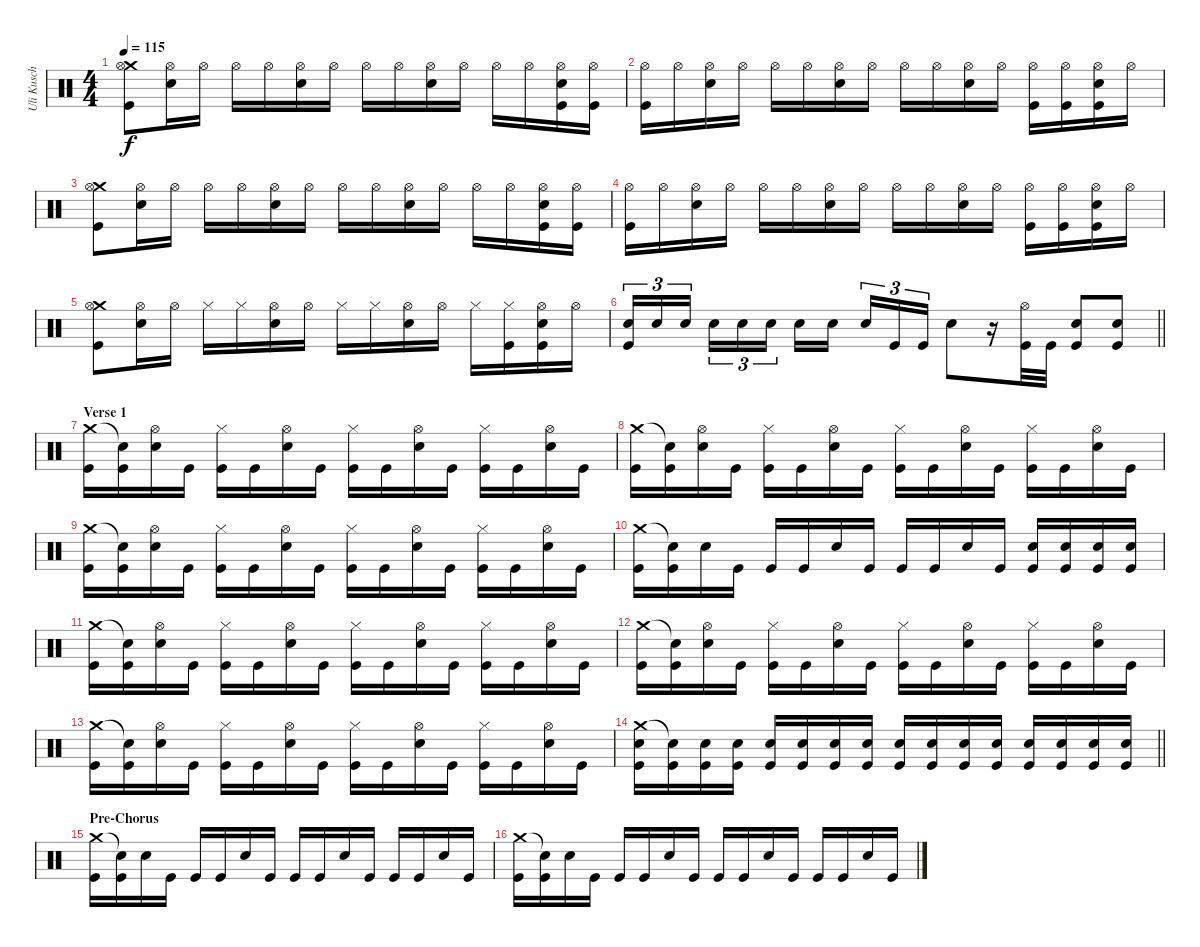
\track ("Uli Kusch (Drums)" "Uli Kusch ") {instrument percussion}
\staff {score}
\articulation defaults
\ts (4 4)
\tempo 115
\clef neutral
\ks c
("Crash medium (hit)" "Hi-Hat (open)" "Kick (hit)").8{dy f} ("Hi-Hat (open)" "Snare (hit) 2").16 "Hi-Hat (open)".16 "Hi-Hat (open)".16 "Hi-Hat (open)".16 ("Hi-Hat (open)" "Snare (hit) 2").16 "Hi-Hat (open)".16 "Hi-Hat (open)".16 "Hi-Hat (open)".16 ("Hi-Hat (open)" "Snare (hit) 2").16 "Hi-Hat (open)".16 "Hi-Hat (open)".16 "Hi-Hat (open)".16 ("Hi-Hat (open)" "Snare (hit) 2" "Kick (hit)").16 ("Hi-Hat (open)" "Kick (hit)").16 |
("Hi-Hat (open)" "Kick (hit)").16 "Hi-Hat (open)".16 ("Hi-Hat (open)" "Snare (hit) 2").16 "Hi-Hat (open)".16 "Hi-Hat (open)".16 "Hi-Hat (open)".16 ("Hi-Hat (open)" "Snare (hit) 2").16 "Hi-Hat (open)".16 "Hi-Hat (open)".16 "Hi-Hat (open)".16 ("Hi-Hat (open)" "Snare (hit) 2").16 "Hi-Hat (open)".16 ("Hi-Hat (open)" "Kick (hit)").16 ("Hi-Hat (open)" "Kick (hit)").16 ("Hi-Hat (open)" "Snare (hit) 2" "Kick (hit)").16 "Hi-Hat (open)".16 |
("Crash medium (hit)" "Hi-Hat (open)" "Kick (hit)").8 ("Hi-Hat (open)" "Snare (hit) 2").16 "Hi-Hat (open)".16 "Hi-Hat (open)".16 "Hi-Hat (open)".16 ("Hi-Hat (open)" "Snare (hit) 2").16 "Hi-Hat (open)".16 "Hi-Hat (open)".16 "Hi-Hat (open)".16 ("Hi-Hat (open)" "Snare (hit) 2").16 "Hi-Hat (open)".16 "Hi-Hat (open)".16 "Hi-Hat (open)".16 ("Hi-Hat (open)" "Snare (hit) 2" "Kick (hit)").16 ("Hi-Hat (open)" "Kick (hit)").16 |
("Hi-Hat (open)" "Kick (hit)").16 "Hi-Hat (open)".16 ("Hi-Hat (open)" "Snare (hit) 2").16 "Hi-Hat (open)".16 "Hi-Hat (open)".16 "Hi-Hat (open)".16 ("Hi-Hat (open)" "Snare (hit) 2").16 "Hi-Hat (open)".16 "Hi-Hat (open)".16 "Hi-Hat (open)".16 ("Hi-Hat (open)" "Snare (hit) 2").16 "Hi-Hat (open)".16 ("Hi-Hat (open)" "Kick (hit)").16 ("Hi-Hat (open)" "Kick (hit)").16 ("Hi-Hat (open)" "Snare (hit) 2" "Kick (hit)").16 "Hi-Hat (open)".16 |
("Crash medium (hit)" "Hi-Hat (open)" "Kick (hit)").8 ("Hi-Hat (open)" "Snare (hit) 2").16 "Hi-Hat (open)".16 "Hi-Hat (closed)".16 "Hi-Hat (closed)".16 ("Hi-Hat (open)" "Snare (hit) 2").16 "Hi-Hat (open)".16 "Hi-Hat (closed)".16 "Hi-Hat (closed)".16 ("Hi-Hat (open)" "Snare (hit) 2").16 "Hi-Hat (open)".16 "Hi-Hat (closed)".16 ("Hi-Hat (closed)" "Kick (hit)").16 ("Hi-Hat (open)" "Snare (hit) 2" "Kick (hit)").16 "Hi-Hat (open)".16 |
\barLineRight lightlight
("Snare (hit) 2" "Kick (hit)").16{tu (3 2)} "Snare (hit) 2".16{tu (3 2)} "Snare (hit) 2".16{tu (3 2) beam splitsecondary} "Snare (hit) 2".16{tu (3 2)} "Snare (hit) 2".16{tu (3 2)} "Snare (hit) 2".16{tu (3 2)} "Snare (hit) 2".16 "Snare (hit) 2".16{beam splitsecondary} "Snare (hit) 2".16{tu (3 2)} "Kick (hit)".16{tu (3 2)} "Kick (hit)".16{tu (3 2)} "Snare (hit) 2".8 r.16 ("Hi-Hat (open)" "Kick (hit)").32 "Kick (hit)".32 ("Snare (hit) 2" "Kick (hit)").8 ("Snare (hit) 2" "Kick (hit)").8 |
\section ("" "Verse 1")
("Crash medium (hit)" "Kick (hit)").16 ("Snare (hit)"{t} "Kick (hit)").16 ("Hi-Hat (open)" "Snare (hit) 2").16 "Kick (hit)".16 ("Hi-Hat (closed)" "Kick (hit)").16 "Kick (hit)".16 ("Hi-Hat (open)" "Snare (hit) 2").16 "Kick (hit)".16 ("Hi-Hat (closed)" "Kick (hit)").16 "Kick (hit)".16 ("Hi-Hat (open)" "Snare (hit) 2").16 "Kick (hit)".16 ("Hi-Hat (closed)" "Kick (hit)").16 "Kick (hit)".16 ("Hi-Hat (open)" "Snare (hit) 2").16 "Kick (hit)".16 |
("Crash medium (hit)" "Kick (hit)").16 ("Snare (hit)"{t} "Kick (hit)").16 ("Hi-Hat (open)" "Snare (hit) 2").16 "Kick (hit)".16 ("Hi-Hat (closed)" "Kick (hit)").16 "Kick (hit)".16 ("Hi-Hat (open)" "Snare (hit) 2").16 "Kick (hit)".16 ("Hi-Hat (closed)" "Kick (hit)").16 "Kick (hit)".16 ("Hi-Hat (open)" "Snare (hit) 2").16 "Kick (hit)".16 ("Hi-Hat (closed)" "Kick (hit)").16 "Kick (hit)".16 ("Hi-Hat (open)" "Snare (hit) 2").16 "Kick (hit)".16 |
("Crash medium (hit)" "Kick (hit)").16 ("Snare (hit)"{t} "Kick (hit)").16 ("Hi-Hat (open)" "Snare (hit) 2").16 "Kick (hit)".16 ("Hi-Hat (closed)" "Kick (hit)").16 "Kick (hit)".16 ("Hi-Hat (open)" "Snare (hit) 2").16 "Kick (hit)".16 ("Hi-Hat (closed)" "Kick (hit)").16 "Kick (hit)".16 ("Hi-Hat (open)" "Snare (hit) 2").16 "Kick (hit)".16 ("Hi-Hat (closed)" "Kick (hit)").16 "Kick (hit)".16 ("Hi-Hat (open)" "Snare (hit) 2").16 "Kick (hit)".16 |
("Crash medium (hit)" "Kick (hit)").16 ("Snare (hit)"{t} "Kick (hit)").16 "Snare (hit) 2".16 "Kick (hit)".16 "Kick (hit)".16 "Kick (hit)".16 "Snare (hit) 2".16 "Kick (hit)".16 "Kick (hit)".16 "Kick (hit)".16 "Snare (hit) 2".16 "Kick (hit)".16 ("Electric Snare (hit)" "Kick (hit)").16 ("Electric Snare (hit)" "Kick (hit)").16 ("Snare (hit) 2" "Kick (hit)").16 ("Snare (hit) 2" "Kick (hit)").16 |
("Crash medium (hit)" "Kick (hit)").16 ("Snare (hit)"{t} "Kick (hit)").16 ("Hi-Hat (open)" "Snare (hit) 2").16 "Kick (hit)".16 ("Hi-Hat (closed)" "Kick (hit)").16 "Kick (hit)".16 ("Hi-Hat (open)" "Snare (hit) 2").16 "Kick (hit)".16 ("Hi-Hat (closed)" "Kick (hit)").16 "Kick (hit)".16 ("Hi-Hat (open)" "Snare (hit) 2").16 "Kick (hit)".16 ("Hi-Hat (closed)" "Kick (hit)").16 "Kick (hit)".16 ("Hi-Hat (open)" "Snare (hit) 2").16 "Kick (hit)".16 |
("Crash medium (hit)" "Kick (hit)").16 ("Snare (hit)"{t} "Kick (hit)").16 ("Hi-Hat (open)" "Snare (hit) 2").16 "Kick (hit)".16 ("Hi-Hat (closed)" "Kick (hit)").16 "Kick (hit)".16 ("Hi-Hat (open)" "Snare (hit) 2").16 "Kick (hit)".16 ("Hi-Hat (closed)" "Kick (hit)").16 "Kick (hit)".16 ("Hi-Hat (open)" "Snare (hit) 2").16 "Kick (hit)".16 ("Hi-Hat (closed)" "Kick (hit)").16 "Kick (hit)".16 ("Hi-Hat (open)" "Snare (hit) 2").16 "Kick (hit)".16 |
("Crash medium (hit)" "Kick (hit)").16 ("Snare (hit)"{t} "Kick (hit)").16 ("Hi-Hat (open)" "Snare (hit) 2").16 "Kick (hit)".16 ("Hi-Hat (closed)" "Kick (hit)").16 "Kick (hit)".16 ("Hi-Hat (open)" "Snare (hit) 2").16 "Kick (hit)".16 ("Hi-Hat (closed)" "Kick (hit)").16 "Kick (hit)".16 ("Hi-Hat (open)" "Snare (hit) 2").16 "Kick (hit)".16 ("Hi-Hat (closed)" "Kick (hit)").16 "Kick (hit)".16 ("Hi-Hat (open)" "Snare (hit) 2").16 "Kick (hit)".16 |
\barLineRight lightlight
("Crash medium (hit)" "Snare (hit) 2" "Kick (hit)").16 ("Snare (hit)"{t} "Kick (hit)").16 ("Electric Snare (hit)" "Kick (hit)").16 ("Snare (hit) 2" "Kick (hit)").16 ("Snare (hit) 2" "Kick (hit)").16 ("Electric Snare (hit)" "Kick (hit)").16 ("Snare (hit) 2" "Kick (hit)").16 ("Electric Snare (hit)" "Kick (hit)").16 ("Snare (hit) 2" "Kick (hit)").16 ("Snare (hit) 2" "Kick (hit)").16 ("Electric Snare (hit)" "Kick (hit)").16 ("Electric Snare (hit)" "Kick (hit)").16 ("Snare (hit) 2" "Kick (hit)").16 ("Snare (hit) 2" "Kick (hit)").16 ("Snare (hit) 2" "Kick (hit)").16 ("Snare (hit) 2" "Kick (hit)").16 |
\section ("" "Pre-Chorus")
("Crash medium (hit)" "Kick (hit)").16 ("Snare (hit)"{t} "Kick (hit)").16 "Snare (hit) 2".16 "Kick (hit)".16 "Kick (hit)".16 "Kick (hit)".16 "Snare (hit) 2".16 "Kick (hit)".16 "Kick (hit)".16 "Kick (hit)".16 "Snare (hit) 2".16 "Kick (hit)".16 "Kick (hit)".16 "Kick (hit)".16 "Snare (hit) 2".16 "Kick (hit)".16 |
("Crash medium (hit)" "Kick (hit)").16 ("Snare (hit)"{t} "Kick (hit)").16 "Snare (hit) 2".16 "Kick (hit)".16 "Kick (hit)".16 "Kick (hit)".16 "Snare (hit) 2".16 "Kick (hit)".16 "Kick (hit)".16 "Kick (hit)".16 "Snare (hit) 2".16 "Kick (hit)".16 "Kick (hit)".16 "Kick (hit)".16 "Snare (hit) 2".16 "Kick (hit)".16
